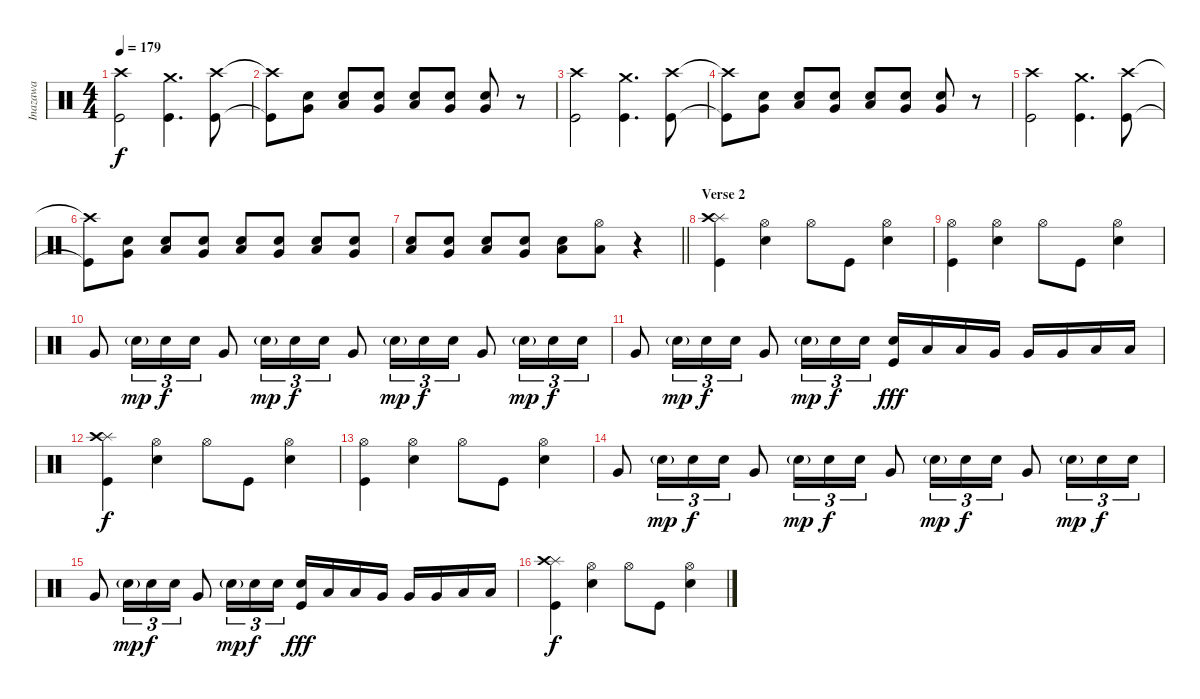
\track ("Inazawa" "Inazawa") {instrument percussion}
\staff {score}
\articulation defaults
\ts (4 4)
\tempo 179
\clef neutral
\ks c
("Crash high (hit)" "Kick (hit)").2{dy f} ("Crash medium (hit)" "Kick (hit)").4{d} ("Crash high (hit)" "Kick (hit)").8 |
("Crash high (hit)"{t} "Kick (hit)"{t}).8 ("Snare (hit) 2" "Very Low Tom (hit)").8 ("Snare (hit) 2" "Low Tom (hit)").8 ("Snare (hit) 2" "Very Low Tom (hit)").8 ("Snare (hit) 2" "Low Tom (hit)").8 ("Snare (hit) 2" "Very Low Tom (hit)").8 ("Snare (hit) 2" "Very Low Tom (hit)").8 r.8 |
("Crash high (hit)" "Kick (hit)").2 ("Crash medium (hit)" "Kick (hit)").4{d} ("Crash high (hit)" "Kick (hit)").8 |
("Crash high (hit)"{t} "Kick (hit)"{t}).8 ("Snare (hit) 2" "Very Low Tom (hit)").8 ("Snare (hit) 2" "Low Tom (hit)").8 ("Snare (hit) 2" "Very Low Tom (hit)").8 ("Snare (hit) 2" "Low Tom (hit)").8 ("Snare (hit) 2" "Very Low Tom (hit)").8 ("Snare (hit) 2" "Very Low Tom (hit)").8 r.8 |
("Crash high (hit)" "Kick (hit)").2 ("Crash medium (hit)" "Kick (hit)").4{d} ("Crash high (hit)" "Kick (hit)").8 |
("Crash high (hit)"{t} "Kick (hit)"{t}).8 ("Snare (hit) 2" "Very Low Tom (hit)").8{volume 14} ("Snare (hit) 2" "Low Tom (hit)").8 ("Snare (hit) 2" "Very Low Tom (hit)").8 ("Snare (hit) 2" "Low Tom (hit)").8 ("Snare (hit) 2" "Very Low Tom (hit)").8 ("Snare (hit) 2" "Low Tom (hit)").8 ("Snare (hit) 2" "Very Low Tom (hit)").8 |
\barLineRight lightlight
("Snare (hit) 2" "Low Tom (hit)").8 ("Snare (hit) 2" "Very Low Tom (hit)").8 ("Snare (hit) 2" "Low Tom (hit)").8 ("Snare (hit) 2" "Very Low Tom (hit)").8 ("Snare (hit) 2" "Low Tom (hit)").8 ("Hi-Hat (open)" "Low Tom (hit)").8 r.4 |
\section ("" "Verse 2")
("Splash (hit)" "Crash high (hit)" "Kick (hit)").4{volume 12} ("Hi-Hat (open)" "Snare (hit) 2").4 "Hi-Hat (open)".8 "Kick (hit)".8 ("Hi-Hat (open)" "Snare (hit) 2").4 |
("Hi-Hat (open)" "Kick (hit)").4 ("Hi-Hat (open)" "Snare (hit) 2").4 "Hi-Hat (open)".8 "Kick (hit)".8 ("Hi-Hat (open)" "Snare (hit) 2").4 |
"Very Low Tom (hit)".8 "Snare (hit) 2"{g}.16{tu (3 2) dy mp} "Snare (hit) 2".16{tu (3 2) dy f} "Snare (hit) 2".16{tu (3 2)} "Very Low Tom (hit)".8 "Snare (hit) 2"{g}.16{tu (3 2) dy mp} "Snare (hit) 2".16{tu (3 2) dy f} "Snare (hit) 2".16{tu (3 2)} "Very Low Tom (hit)".8 "Snare (hit) 2"{g}.16{tu (3 2) dy mp} "Snare (hit) 2".16{tu (3 2) dy f} "Snare (hit) 2".16{tu (3 2)} "Very Low Tom (hit)".8 "Snare (hit) 2"{g}.16{tu (3 2) dy mp} "Snare (hit) 2".16{tu (3 2) dy f} "Snare (hit) 2".16{tu (3 2)} |
"Very Low Tom (hit)".8 "Snare (hit) 2"{g}.16{tu (3 2) dy mp} "Snare (hit) 2".16{tu (3 2) dy f} "Snare (hit) 2".16{tu (3 2)} "Very Low Tom (hit)".8 "Snare (hit) 2"{g}.16{tu (3 2) dy mp} "Snare (hit) 2".16{tu (3 2) dy f} "Snare (hit) 2".16{tu (3 2)} ("Snare (hit) 2" "Kick (hit)").16{dy fff} "Low Tom (hit)".16 "Low Tom (hit)".16 "Very Low Tom (hit)".16 "Very Low Tom (hit)".16 "Very Low Tom (hit)".16 "Low Floor Tom (hit)".16 "Low Floor Tom (hit)".16 |
("Splash (hit)" "Crash high (hit)" "Kick (hit)").4{dy f} ("Hi-Hat (open)" "Snare (hit) 2").4 "Hi-Hat (open)".8 "Kick (hit)".8 ("Hi-Hat (open)" "Snare (hit) 2").4 |
("Hi-Hat (open)" "Kick (hit)").4 ("Hi-Hat (open)" "Snare (hit) 2").4 "Hi-Hat (open)".8 "Kick (hit)".8 ("Hi-Hat (open)" "Snare (hit) 2").4 |
"Very Low Tom (hit)".8 "Snare (hit) 2"{g}.16{tu (3 2) dy mp} "Snare (hit) 2".16{tu (3 2) dy f} "Snare (hit) 2".16{tu (3 2)} "Very Low Tom (hit)".8 "Snare (hit) 2"{g}.16{tu (3 2) dy mp} "Snare (hit) 2".16{tu (3 2) dy f} "Snare (hit) 2".16{tu (3 2)} "Very Low Tom (hit)".8 "Snare (hit) 2"{g}.16{tu (3 2) dy mp} "Snare (hit) 2".16{tu (3 2) dy f} "Snare (hit) 2".16{tu (3 2)} "Very Low Tom (hit)".8 "Snare (hit) 2"{g}.16{tu (3 2) dy mp} "Snare (hit) 2".16{tu (3 2) dy f} "Snare (hit) 2".16{tu (3 2)} |
"Very Low Tom (hit)".8 "Snare (hit) 2"{g}.16{tu (3 2) dy mp} "Snare (hit) 2".16{tu (3 2) dy f} "Snare (hit) 2".16{tu (3 2)} "Very Low Tom (hit)".8 "Snare (hit) 2"{g}.16{tu (3 2) dy mp} "Snare (hit) 2".16{tu (3 2) dy f} "Snare (hit) 2".16{tu (3 2)} ("Snare (hit) 2" "Kick (hit)").16{dy fff} "Low Tom (hit)".16 "Low Tom (hit)".16 "Very Low Tom (hit)".16 "Very Low Tom (hit)".16 "Very Low Tom (hit)".16 "Low Floor Tom (hit)".16 "Low Floor Tom (hit)".16 |
("Splash (hit)" "Crash high (hit)" "Kick (hit)").4{dy f} ("Hi-Hat (open)" "Snare (hit) 2").4 "Hi-Hat (open)".8 "Kick (hit)".8 ("Hi-Hat (open)" "Snare (hit) 2").4
